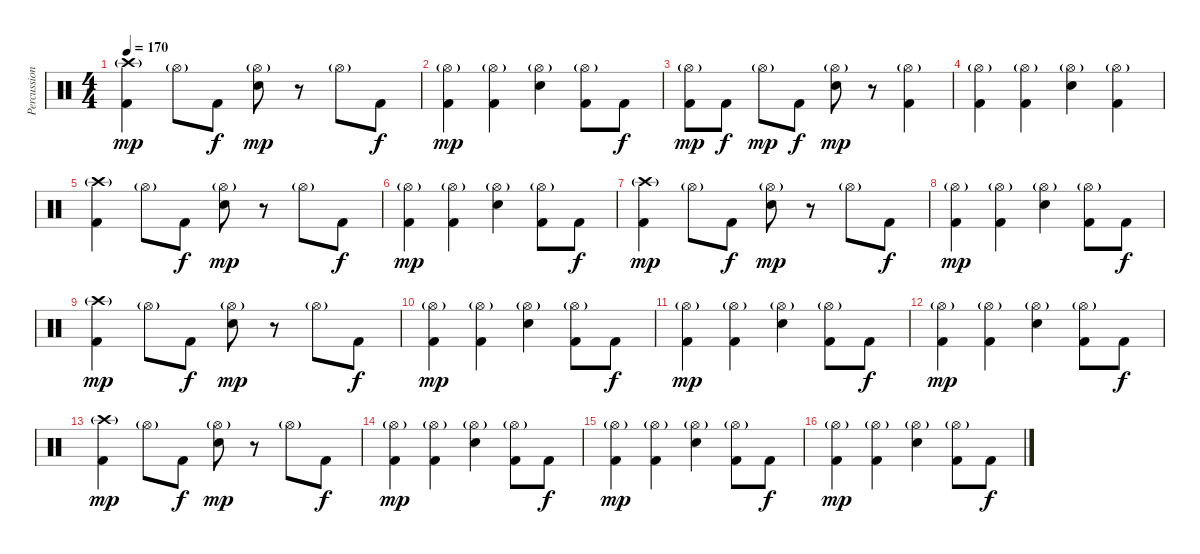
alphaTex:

\track ("Percussion" "Percussion") {instrument percussion}
\staff {score}
\articulation defaults
\ts (4 4)
\tempo 170
\clef neutral
\ks c
("Crash high (hit)"{g} "Kick (hit) 2").4{dy mp} "Hi-Hat (open)"{g}.8 "Kick (hit) 2".8{dy f} ("Hi-Hat (open)"{g} "Electric Snare (hit)").8{dy mp} r.8 "Hi-Hat (open)"{g}.8 "Kick (hit) 2".8{dy f} |
("Hi-Hat (open)"{g} "Kick (hit) 2").4{dy mp} ("Hi-Hat (open)"{g} "Kick (hit) 2").4 ("Hi-Hat (open)"{g} "Electric Snare (hit)").4 ("Hi-Hat (open)"{g} "Kick (hit) 2").8 "Kick (hit) 2".8{dy f} |
("Hi-Hat (open)"{g} "Kick (hit) 2").8{dy mp} "Kick (hit) 2".8{dy f} "Hi-Hat (open)"{g}.8{dy mp} "Kick (hit) 2".8{dy f} ("Hi-Hat (open)"{g} "Electric Snare (hit)").8{dy mp} r.8 ("Hi-Hat (open)"{g} "Kick (hit) 2").4 |
("Hi-Hat (open)"{g} "Kick (hit) 2").4 ("Hi-Hat (open)"{g} "Kick (hit) 2").4 ("Hi-Hat (open)"{g} "Electric Snare (hit)").4 ("Hi-Hat (open)"{g} "Kick (hit) 2").4 |
("Crash high (hit)"{g} "Kick (hit) 2").4 "Hi-Hat (open)"{g}.8 "Kick (hit) 2".8{dy f} ("Hi-Hat (open)"{g} "Electric Snare (hit)").8{dy mp} r.8 "Hi-Hat (open)"{g}.8 "Kick (hit) 2".8{dy f} |
("Hi-Hat (open)"{g} "Kick (hit) 2").4{dy mp} ("Hi-Hat (open)"{g} "Kick (hit) 2").4 ("Hi-Hat (open)"{g} "Electric Snare (hit)").4 ("Hi-Hat (open)"{g} "Kick (hit) 2").8 "Kick (hit) 2".8{dy f} |
("Crash high (hit)"{g} "Kick (hit) 2").4{dy mp} "Hi-Hat (open)"{g}.8 "Kick (hit) 2".8{dy f} ("Hi-Hat (open)"{g} "Electric Snare (hit)").8{dy mp} r.8 "Hi-Hat (open)"{g}.8 "Kick (hit) 2".8{dy f} |
("Hi-Hat (open)"{g} "Kick (hit) 2").4{dy mp} ("Hi-Hat (open)"{g} "Kick (hit) 2").4 ("Hi-Hat (open)"{g} "Electric Snare (hit)").4 ("Hi-Hat (open)"{g} "Kick (hit) 2").8 "Kick (hit) 2".8{dy f} |
("Crash high (hit)"{g} "Kick (hit) 2").4{dy mp} "Hi-Hat (open)"{g}.8 "Kick (hit) 2".8{dy f} ("Hi-Hat (open)"{g} "Electric Snare (hit)").8{dy mp} r.8 "Hi-Hat (open)"{g}.8 "Kick (hit) 2".8{dy f} |
("Hi-Hat (open)"{g} "Kick (hit) 2").4{dy mp} ("Hi-Hat (open)"{g} "Kick (hit) 2").4 ("Hi-Hat (open)"{g} "Electric Snare (hit)").4 ("Hi-Hat (open)"{g} "Kick (hit) 2").8 "Kick (hit) 2".8{dy f} |
("Hi-Hat (open)"{g} "Kick (hit) 2").4{dy mp} ("Hi-Hat (open)"{g} "Kick (hit) 2").4 ("Hi-Hat (open)"{g} "Electric Snare (hit)").4 ("Hi-Hat (open)"{g} "Kick (hit) 2").8 "Kick (hit) 2".8{dy f} |
("Hi-Hat (open)"{g} "Kick (hit) 2").4{dy mp} ("Hi-Hat (open)"{g} "Kick (hit) 2").4 ("Hi-Hat (open)"{g} "Electric Snare (hit)").4 ("Hi-Hat (open)"{g} "Kick (hit) 2").8 "Kick (hit) 2".8{dy f} |
("Crash high (hit)"{g} "Kick (hit) 2").4{dy mp} "Hi-Hat (open)"{g}.8 "Kick (hit) 2".8{dy f} ("Hi-Hat (open)"{g} "Electric Snare (hit)").8{dy mp} r.8 "Hi-Hat (open)"{g}.8 "Kick (hit) 2".8{dy f} |
("Hi-Hat (open)"{g} "Kick (hit) 2").4{dy mp} ("Hi-Hat (open)"{g} "Kick (hit) 2").4 ("Hi-Hat (open)"{g} "Electric Snare (hit)").4 ("Hi-Hat (open)"{g} "Kick (hit) 2").8 "Kick (hit) 2".8{dy f} |
("Hi-Hat (open)"{g} "Kick (hit) 2").4{dy mp} ("Hi-Hat (open)"{g} "Kick (hit) 2").4 ("Hi-Hat (open)"{g} "Electric Snare (hit)").4 ("Hi-Hat (open)"{g} "Kick (hit) 2").8 "Kick (hit) 2".8{dy f} |
("Hi-Hat (open)"{g} "Kick (hit) 2").4{dy mp} ("Hi-Hat (open)"{g} "Kick (hit) 2").4 ("Hi-Hat (open)"{g} "Electric Snare (hit)").4 ("Hi-Hat (open)"{g} "Kick (hit) 2").8 "Kick (hit) 2".8{dy f}
